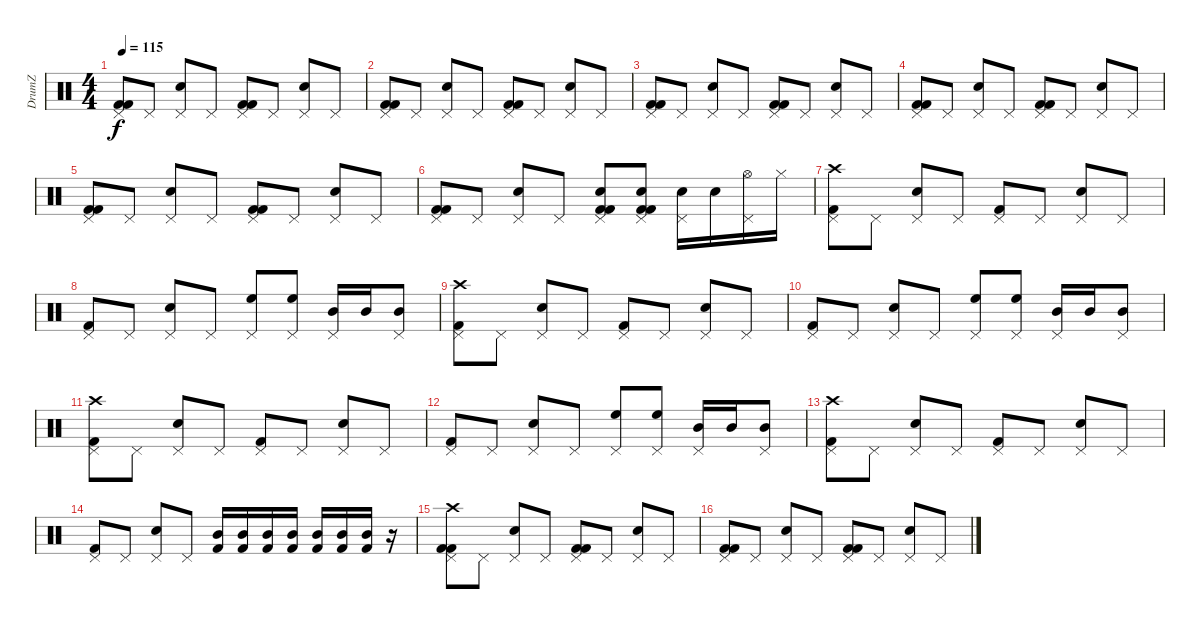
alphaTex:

\track ("DrumZ" "DrumZ") {instrument percussion}
\staff {score}
\articulation defaults
\ts (4 4)
\tempo 115
\clef neutral
\ks c
("Pedal Hi-Hat (hit)" "Kick (hit) 2" "Kick (hit) 2").8{dy f} "Pedal Hi-Hat (hit)".8 ("Pedal Hi-Hat (hit)" "Electric Snare (hit)").8 "Pedal Hi-Hat (hit)".8 ("Pedal Hi-Hat (hit)" "Kick (hit) 2" "Kick (hit) 2").8 "Pedal Hi-Hat (hit)".8 ("Pedal Hi-Hat (hit)" "Electric Snare (hit)").8 "Pedal Hi-Hat (hit)".8 |
("Pedal Hi-Hat (hit)" "Kick (hit) 2" "Kick (hit) 2").8 "Pedal Hi-Hat (hit)".8 ("Pedal Hi-Hat (hit)" "Electric Snare (hit)").8 "Pedal Hi-Hat (hit)".8 ("Pedal Hi-Hat (hit)" "Kick (hit) 2" "Kick (hit) 2").8 "Pedal Hi-Hat (hit)".8 ("Pedal Hi-Hat (hit)" "Electric Snare (hit)").8 "Pedal Hi-Hat (hit)".8 |
("Pedal Hi-Hat (hit)" "Kick (hit) 2" "Kick (hit) 2").8 "Pedal Hi-Hat (hit)".8 ("Pedal Hi-Hat (hit)" "Electric Snare (hit)").8 "Pedal Hi-Hat (hit)".8 ("Pedal Hi-Hat (hit)" "Kick (hit) 2" "Kick (hit) 2").8 "Pedal Hi-Hat (hit)".8 ("Pedal Hi-Hat (hit)" "Electric Snare (hit)").8 "Pedal Hi-Hat (hit)".8 |
("Pedal Hi-Hat (hit)" "Kick (hit) 2" "Kick (hit) 2").8 "Pedal Hi-Hat (hit)".8 ("Pedal Hi-Hat (hit)" "Electric Snare (hit)").8 "Pedal Hi-Hat (hit)".8 ("Pedal Hi-Hat (hit)" "Kick (hit) 2" "Kick (hit) 2").8 "Pedal Hi-Hat (hit)".8 ("Pedal Hi-Hat (hit)" "Electric Snare (hit)").8 "Pedal Hi-Hat (hit)".8 |
("Pedal Hi-Hat (hit)" "Kick (hit) 2" "Kick (hit) 2").8 "Pedal Hi-Hat (hit)".8 ("Pedal Hi-Hat (hit)" "Electric Snare (hit)").8 "Pedal Hi-Hat (hit)".8 ("Pedal Hi-Hat (hit)" "Kick (hit) 2" "Kick (hit) 2").8 "Pedal Hi-Hat (hit)".8 ("Pedal Hi-Hat (hit)" "Electric Snare (hit)").8 "Pedal Hi-Hat (hit)".8 |
("Pedal Hi-Hat (hit)" "Kick (hit) 2" "Kick (hit) 2").8 "Pedal Hi-Hat (hit)".8 ("Pedal Hi-Hat (hit)" "Electric Snare (hit)").8 "Pedal Hi-Hat (hit)".8 ("Pedal Hi-Hat (hit)" "Snare (hit) 2" "Kick (hit) 2" "Kick (hit) 2").8 ("Pedal Hi-Hat (hit)" "Snare (hit) 2" "Kick (hit) 2" "Kick (hit) 2").8 ("Pedal Hi-Hat (hit)" "Electric Snare (hit)").16 "Electric Snare (hit)".16 ("Pedal Hi-Hat (hit)" "Hi-Hat (open)").16 "Hi-Hat (closed)".16 |
("Pedal Hi-Hat (hit)" "Crash high (hit)" "Kick (hit) 2").8 "Pedal Hi-Hat (hit)".8 ("Pedal Hi-Hat (hit)" "Electric Snare (hit)").8 "Pedal Hi-Hat (hit)".8 ("Pedal Hi-Hat (hit)" "Kick (hit) 2").8 "Pedal Hi-Hat (hit)".8 ("Pedal Hi-Hat (hit)" "Electric Snare (hit)").8 "Pedal Hi-Hat (hit)".8 |
("Pedal Hi-Hat (hit)" "Kick (hit) 2").8 "Pedal Hi-Hat (hit)".8 ("Pedal Hi-Hat (hit)" "Electric Snare (hit)").8 "Pedal Hi-Hat (hit)".8 ("Pedal Hi-Hat (hit)" "High Floor Tom (hit)").8 ("Pedal Hi-Hat (hit)" "High Floor Tom (hit)").8 ("Pedal Hi-Hat (hit)" "Mid Tom (hit)").16 "Mid Tom (hit)".16 ("Pedal Hi-Hat (hit)" "Mid Tom (hit)").8 |
("Pedal Hi-Hat (hit)" "Crash high (hit)" "Kick (hit) 2").8 "Pedal Hi-Hat (hit)".8 ("Pedal Hi-Hat (hit)" "Electric Snare (hit)").8 "Pedal Hi-Hat (hit)".8 ("Pedal Hi-Hat (hit)" "Kick (hit) 2").8 "Pedal Hi-Hat (hit)".8 ("Pedal Hi-Hat (hit)" "Electric Snare (hit)").8 "Pedal Hi-Hat (hit)".8 |
("Pedal Hi-Hat (hit)" "Kick (hit) 2").8 "Pedal Hi-Hat (hit)".8 ("Pedal Hi-Hat (hit)" "Electric Snare (hit)").8 "Pedal Hi-Hat (hit)".8 ("Pedal Hi-Hat (hit)" "High Floor Tom (hit)").8 ("Pedal Hi-Hat (hit)" "High Floor Tom (hit)").8 ("Pedal Hi-Hat (hit)" "Mid Tom (hit)").16 "Mid Tom (hit)".16 ("Pedal Hi-Hat (hit)" "Mid Tom (hit)").8 |
("Pedal Hi-Hat (hit)" "Crash high (hit)" "Kick (hit) 2").8 "Pedal Hi-Hat (hit)".8 ("Pedal Hi-Hat (hit)" "Electric Snare (hit)").8 "Pedal Hi-Hat (hit)".8 ("Pedal Hi-Hat (hit)" "Kick (hit) 2").8 "Pedal Hi-Hat (hit)".8 ("Pedal Hi-Hat (hit)" "Electric Snare (hit)").8 "Pedal Hi-Hat (hit)".8 |
("Pedal Hi-Hat (hit)" "Kick (hit) 2").8 "Pedal Hi-Hat (hit)".8 ("Pedal Hi-Hat (hit)" "Electric Snare (hit)").8 "Pedal Hi-Hat (hit)".8 ("Pedal Hi-Hat (hit)" "High Floor Tom (hit)").8 ("Pedal Hi-Hat (hit)" "High Floor Tom (hit)").8 ("Pedal Hi-Hat (hit)" "Mid Tom (hit)").16 "Mid Tom (hit)".16 ("Pedal Hi-Hat (hit)" "Mid Tom (hit)").8 |
("Pedal Hi-Hat (hit)" "Crash high (hit)" "Kick (hit) 2").8 "Pedal Hi-Hat (hit)".8 ("Pedal Hi-Hat (hit)" "Electric Snare (hit)").8 "Pedal Hi-Hat (hit)".8 ("Pedal Hi-Hat (hit)" "Kick (hit) 2").8 "Pedal Hi-Hat (hit)".8 ("Pedal Hi-Hat (hit)" "Electric Snare (hit)").8 "Pedal Hi-Hat (hit)".8 |
("Pedal Hi-Hat (hit)" "Kick (hit) 2").8 "Pedal Hi-Hat (hit)".8 ("Pedal Hi-Hat (hit)" "Electric Snare (hit)").8 "Pedal Hi-Hat (hit)".8 ("Kick (hit) 2" "Mid Tom (hit)").16 ("Kick (hit) 2" "Mid Tom (hit)").16 ("Kick (hit) 2" "Mid Tom (hit)").16 ("Kick (hit) 2" "Mid Tom (hit)").16 ("Kick (hit) 2" "Mid Tom (hit)").16 ("Kick (hit) 2" "Mid Tom (hit)").16 ("Kick (hit) 2" "Mid Tom (hit)").16 r.16 |
("Pedal Hi-Hat (hit)" "Crash high (hit)" "Kick (hit) 2" "Kick (hit) 2").8 "Pedal Hi-Hat (hit)".8 ("Pedal Hi-Hat (hit)" "Electric Snare (hit)").8 "Pedal Hi-Hat (hit)".8 ("Pedal Hi-Hat (hit)" "Kick (hit) 2" "Kick (hit) 2").8 "Pedal Hi-Hat (hit)".8 ("Pedal Hi-Hat (hit)" "Electric Snare (hit)").8 "Pedal Hi-Hat (hit)".8 |
("Pedal Hi-Hat (hit)" "Kick (hit) 2" "Kick (hit) 2").8 "Pedal Hi-Hat (hit)".8 ("Pedal Hi-Hat (hit)" "Electric Snare (hit)").8 "Pedal Hi-Hat (hit)".8 ("Pedal Hi-Hat (hit)" "Kick (hit) 2" "Kick (hit) 2").8 "Pedal Hi-Hat (hit)".8 ("Pedal Hi-Hat (hit)" "Electric Snare (hit)").8 "Pedal Hi-Hat (hit)".8
